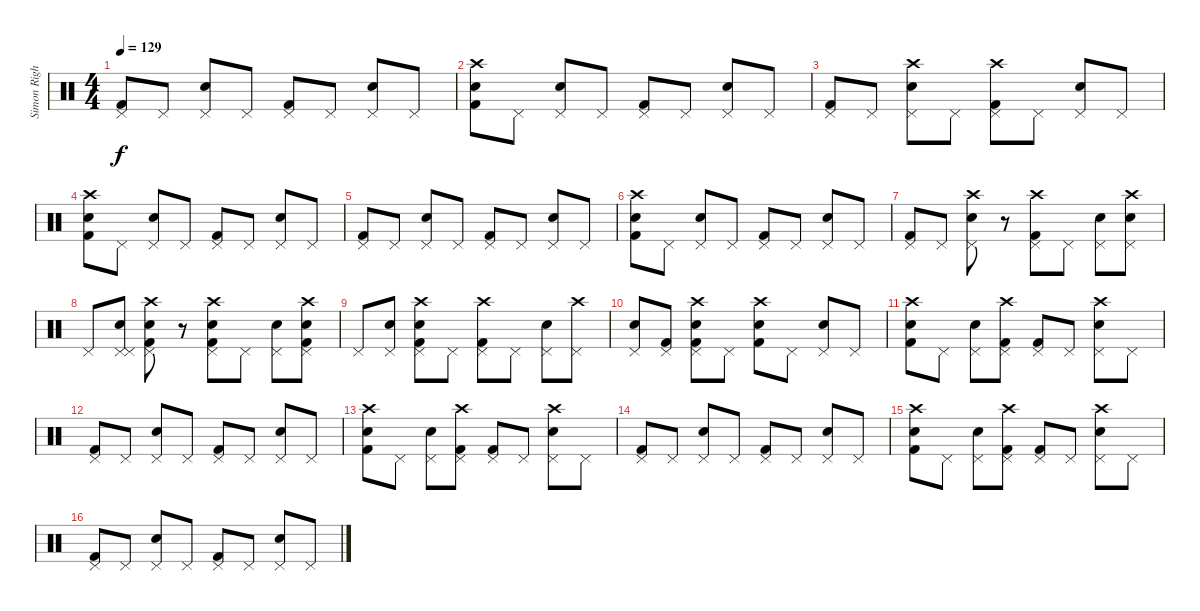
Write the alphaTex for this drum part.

\track ("Simon Right" "Simon Righ") {instrument percussion}
\staff {score}
\articulation defaults
\ts (4 4)
\tempo 129
\clef neutral
\ks c
("Pedal Hi-Hat (hit)" "Kick (hit) 2").8{dy f} "Pedal Hi-Hat (hit)".8 ("Snare (hit) 2" "Pedal Hi-Hat (hit)").8 "Pedal Hi-Hat (hit)".8 ("Pedal Hi-Hat (hit)" "Kick (hit) 2").8 "Pedal Hi-Hat (hit)".8 ("Snare (hit) 2" "Pedal Hi-Hat (hit)").8 "Pedal Hi-Hat (hit)".8 |
("Crash high (hit)" "Snare (hit) 2" "Kick (hit) 2").8 "Pedal Hi-Hat (hit)".8 ("Snare (hit) 2" "Pedal Hi-Hat (hit)").8 "Pedal Hi-Hat (hit)".8 ("Kick (hit) 2" "Pedal Hi-Hat (hit)").8 "Pedal Hi-Hat (hit)".8 ("Pedal Hi-Hat (hit)" "Snare (hit) 2").8 "Pedal Hi-Hat (hit)".8 |
("Pedal Hi-Hat (hit)" "Kick (hit) 2").8 "Pedal Hi-Hat (hit)".8 ("Crash high (hit)" "Snare (hit) 2" "Pedal Hi-Hat (hit)").8 "Pedal Hi-Hat (hit)".8 ("Crash high (hit)" "Pedal Hi-Hat (hit)" "Kick (hit) 2").8 "Pedal Hi-Hat (hit)".8 ("Snare (hit) 2" "Pedal Hi-Hat (hit)").8 "Pedal Hi-Hat (hit)".8 |
("Crash high (hit)" "Snare (hit) 2" "Kick (hit) 2").8 "Pedal Hi-Hat (hit)".8 ("Snare (hit) 2" "Pedal Hi-Hat (hit)").8 "Pedal Hi-Hat (hit)".8 ("Kick (hit) 2" "Pedal Hi-Hat (hit)").8 "Pedal Hi-Hat (hit)".8 ("Pedal Hi-Hat (hit)" "Snare (hit) 2").8 "Pedal Hi-Hat (hit)".8 |
("Pedal Hi-Hat (hit)" "Kick (hit) 2").8 "Pedal Hi-Hat (hit)".8 ("Snare (hit) 2" "Pedal Hi-Hat (hit)").8 "Pedal Hi-Hat (hit)".8 ("Pedal Hi-Hat (hit)" "Kick (hit) 2").8 "Pedal Hi-Hat (hit)".8 ("Snare (hit) 2" "Pedal Hi-Hat (hit)").8 "Pedal Hi-Hat (hit)".8 |
("Crash high (hit)" "Snare (hit) 2" "Kick (hit) 2").8 "Pedal Hi-Hat (hit)".8 ("Snare (hit) 2" "Pedal Hi-Hat (hit)").8 "Pedal Hi-Hat (hit)".8 ("Kick (hit) 2" "Pedal Hi-Hat (hit)").8 "Pedal Hi-Hat (hit)".8 ("Pedal Hi-Hat (hit)" "Snare (hit) 2").8 "Pedal Hi-Hat (hit)".8 |
("Pedal Hi-Hat (hit)" "Kick (hit) 2").8 "Pedal Hi-Hat (hit)".8 ("Crash high (hit)" "Snare (hit) 2" "Pedal Hi-Hat (hit)").8 r.8 ("Crash high (hit)" "Pedal Hi-Hat (hit)" "Kick (hit) 2").8 "Pedal Hi-Hat (hit)".8 ("Snare (hit) 2" "Pedal Hi-Hat (hit)").8 ("Crash high (hit)" "Snare (hit) 2" "Pedal Hi-Hat (hit)").8 |
"Pedal Hi-Hat (hit)".8 ("Pedal Hi-Hat (hit)" "Snare (hit) 2" "Pedal Hi-Hat (hit)").8 ("Crash high (hit)" "Snare (hit) 2" "Kick (hit) 2" "Pedal Hi-Hat (hit)").8 r.8 ("Snare (hit) 2" "Crash high (hit)" "Kick (hit) 2" "Pedal Hi-Hat (hit)").8 "Pedal Hi-Hat (hit)".8 ("Pedal Hi-Hat (hit)" "Snare (hit) 2").8 ("Kick (hit) 2" "Snare (hit) 2" "Crash high (hit)" "Pedal Hi-Hat (hit)").8 |
"Pedal Hi-Hat (hit)".8 ("Snare (hit) 2" "Pedal Hi-Hat (hit)").8 ("Kick (hit) 2" "Crash high (hit)" "Snare (hit) 2" "Pedal Hi-Hat (hit)").8 "Pedal Hi-Hat (hit)".8 ("Crash high (hit)" "Pedal Hi-Hat (hit)" "Kick (hit) 2").8 "Pedal Hi-Hat (hit)".8 ("Snare (hit) 2" "Pedal Hi-Hat (hit)").8 ("Crash high (hit)" "Pedal Hi-Hat (hit)").8 |
("Snare (hit) 2" "Pedal Hi-Hat (hit)").8 ("Pedal Hi-Hat (hit)" "Kick (hit) 2").8 ("Kick (hit) 2" "Snare (hit) 2" "Pedal Hi-Hat (hit)" "Crash high (hit)").8 "Pedal Hi-Hat (hit)".8 ("Crash high (hit)" "Snare (hit) 2" "Kick (hit) 2").8{volume 12} "Pedal Hi-Hat (hit)".8 ("Snare (hit) 2" "Pedal Hi-Hat (hit)").8 "Pedal Hi-Hat (hit)".8 |
("Crash high (hit)" "Snare (hit) 2" "Kick (hit) 2").8 "Pedal Hi-Hat (hit)".8 ("Snare (hit) 2" "Pedal Hi-Hat (hit)").8 ("Crash high (hit)" "Kick (hit) 2" "Pedal Hi-Hat (hit)").8 ("Kick (hit) 2" "Pedal Hi-Hat (hit)").8 "Pedal Hi-Hat (hit)".8 ("Crash high (hit)" "Pedal Hi-Hat (hit)" "Snare (hit) 2").8 "Pedal Hi-Hat (hit)".8 |
("Pedal Hi-Hat (hit)" "Kick (hit) 2").8 "Pedal Hi-Hat (hit)".8 ("Snare (hit) 2" "Pedal Hi-Hat (hit)").8 "Pedal Hi-Hat (hit)".8 ("Pedal Hi-Hat (hit)" "Kick (hit) 2").8 "Pedal Hi-Hat (hit)".8 ("Snare (hit) 2" "Pedal Hi-Hat (hit)").8 "Pedal Hi-Hat (hit)".8 |
("Crash high (hit)" "Snare (hit) 2" "Kick (hit) 2").8 "Pedal Hi-Hat (hit)".8 ("Snare (hit) 2" "Pedal Hi-Hat (hit)").8 ("Crash high (hit)" "Kick (hit) 2" "Pedal Hi-Hat (hit)").8 ("Kick (hit) 2" "Pedal Hi-Hat (hit)").8 "Pedal Hi-Hat (hit)".8 ("Crash high (hit)" "Pedal Hi-Hat (hit)" "Snare (hit) 2").8 "Pedal Hi-Hat (hit)".8 |
("Pedal Hi-Hat (hit)" "Kick (hit) 2").8 "Pedal Hi-Hat (hit)".8 ("Snare (hit) 2" "Pedal Hi-Hat (hit)").8 "Pedal Hi-Hat (hit)".8 ("Pedal Hi-Hat (hit)" "Kick (hit) 2").8 "Pedal Hi-Hat (hit)".8 ("Snare (hit) 2" "Pedal Hi-Hat (hit)").8 "Pedal Hi-Hat (hit)".8 |
("Crash high (hit)" "Snare (hit) 2" "Kick (hit) 2").8 "Pedal Hi-Hat (hit)".8 ("Snare (hit) 2" "Pedal Hi-Hat (hit)").8 ("Crash high (hit)" "Kick (hit) 2" "Pedal Hi-Hat (hit)").8 ("Kick (hit) 2" "Pedal Hi-Hat (hit)").8 "Pedal Hi-Hat (hit)".8 ("Crash high (hit)" "Pedal Hi-Hat (hit)" "Snare (hit) 2").8 "Pedal Hi-Hat (hit)".8 |
("Pedal Hi-Hat (hit)" "Kick (hit) 2").8 "Pedal Hi-Hat (hit)".8 ("Snare (hit) 2" "Pedal Hi-Hat (hit)").8 "Pedal Hi-Hat (hit)".8 ("Pedal Hi-Hat (hit)" "Kick (hit) 2").8 "Pedal Hi-Hat (hit)".8 ("Snare (hit) 2" "Pedal Hi-Hat (hit)").8 "Pedal Hi-Hat (hit)".8
